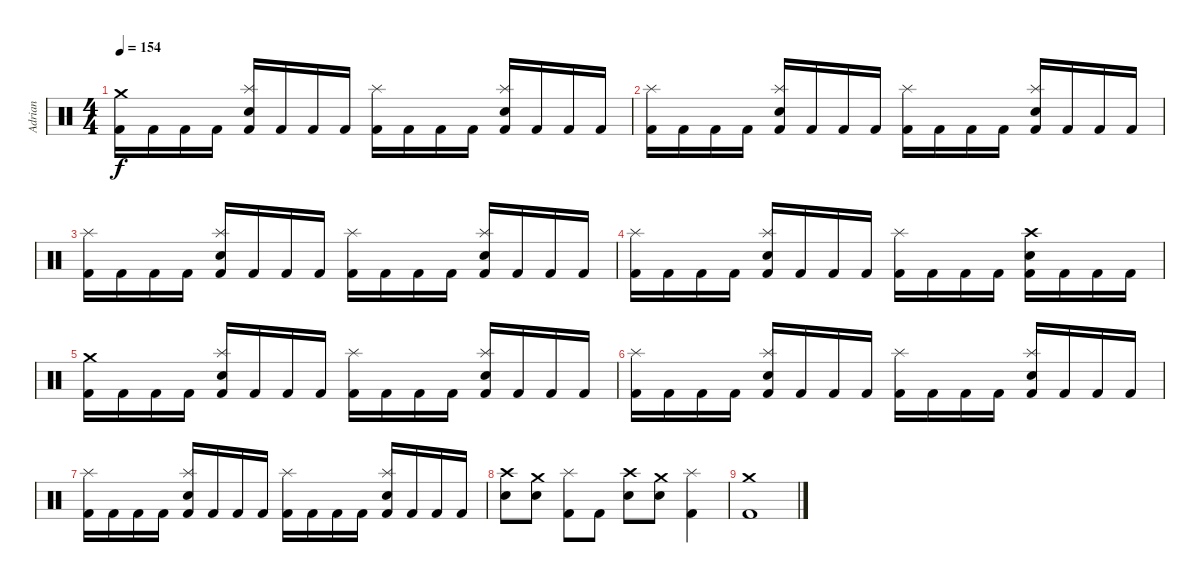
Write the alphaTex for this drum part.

\track ("Adrian" "Adrian") {instrument percussion}
\staff {score}
\articulation defaults
\ts (4 4)
\tempo 154
\clef neutral
\ks c
("Crash medium (hit)" "Kick (hit) 2").16{dy f} "Kick (hit) 2".16 "Kick (hit) 2".16 "Kick (hit) 2".16 ("Splash (hit)" "Electric Snare (hit)" "Kick (hit) 2").16 "Kick (hit) 2".16 "Kick (hit) 2".16 "Kick (hit) 2".16 ("Splash (hit)" "Kick (hit) 2").16 "Kick (hit) 2".16 "Kick (hit) 2".16 "Kick (hit) 2".16 ("Splash (hit)" "Electric Snare (hit)" "Kick (hit) 2").16 "Kick (hit) 2".16 "Kick (hit) 2".16 "Kick (hit) 2".16 |
("Splash (hit)" "Kick (hit) 2").16 "Kick (hit) 2".16 "Kick (hit) 2".16 "Kick (hit) 2".16 ("Splash (hit)" "Electric Snare (hit)" "Kick (hit) 2").16 "Kick (hit) 2".16 "Kick (hit) 2".16 "Kick (hit) 2".16 ("Splash (hit)" "Kick (hit) 2").16 "Kick (hit) 2".16 "Kick (hit) 2".16 "Kick (hit) 2".16 ("Splash (hit)" "Electric Snare (hit)" "Kick (hit) 2").16 "Kick (hit) 2".16 "Kick (hit) 2".16 "Kick (hit) 2".16 |
("Splash (hit)" "Kick (hit) 2").16 "Kick (hit) 2".16 "Kick (hit) 2".16 "Kick (hit) 2".16 ("Splash (hit)" "Electric Snare (hit)" "Kick (hit) 2").16 "Kick (hit) 2".16 "Kick (hit) 2".16 "Kick (hit) 2".16 ("Splash (hit)" "Kick (hit) 2").16 "Kick (hit) 2".16 "Kick (hit) 2".16 "Kick (hit) 2".16 ("Splash (hit)" "Electric Snare (hit)" "Kick (hit) 2").16 "Kick (hit) 2".16 "Kick (hit) 2".16 "Kick (hit) 2".16 |
("Splash (hit)" "Kick (hit) 2").16 "Kick (hit) 2".16 "Kick (hit) 2".16 "Kick (hit) 2".16 ("Splash (hit)" "Electric Snare (hit)" "Kick (hit) 2").16 "Kick (hit) 2".16 "Kick (hit) 2".16 "Kick (hit) 2".16 ("Splash (hit)" "Kick (hit) 2").16 "Kick (hit) 2".16 "Kick (hit) 2".16 "Kick (hit) 2".16 ("Crash high (hit)" "Electric Snare (hit)" "Kick (hit) 2").16 "Kick (hit) 2".16 "Kick (hit) 2".16 "Kick (hit) 2".16 |
("Crash medium (hit)" "Kick (hit) 2").16 "Kick (hit) 2".16 "Kick (hit) 2".16 "Kick (hit) 2".16 ("Splash (hit)" "Electric Snare (hit)" "Kick (hit) 2").16 "Kick (hit) 2".16 "Kick (hit) 2".16 "Kick (hit) 2".16 ("Splash (hit)" "Kick (hit) 2").16 "Kick (hit) 2".16 "Kick (hit) 2".16 "Kick (hit) 2".16 ("Splash (hit)" "Electric Snare (hit)" "Kick (hit) 2").16 "Kick (hit) 2".16 "Kick (hit) 2".16 "Kick (hit) 2".16 |
("Splash (hit)" "Kick (hit) 2").16 "Kick (hit) 2".16 "Kick (hit) 2".16 "Kick (hit) 2".16 ("Splash (hit)" "Electric Snare (hit)" "Kick (hit) 2").16 "Kick (hit) 2".16 "Kick (hit) 2".16 "Kick (hit) 2".16 ("Splash (hit)" "Kick (hit) 2").16 "Kick (hit) 2".16 "Kick (hit) 2".16 "Kick (hit) 2".16 ("Splash (hit)" "Electric Snare (hit)" "Kick (hit) 2").16 "Kick (hit) 2".16 "Kick (hit) 2".16 "Kick (hit) 2".16 |
("Splash (hit)" "Kick (hit) 2").16 "Kick (hit) 2".16 "Kick (hit) 2".16 "Kick (hit) 2".16 ("Splash (hit)" "Electric Snare (hit)" "Kick (hit) 2").16 "Kick (hit) 2".16 "Kick (hit) 2".16 "Kick (hit) 2".16 ("Splash (hit)" "Kick (hit) 2").16 "Kick (hit) 2".16 "Kick (hit) 2".16 "Kick (hit) 2".16 ("Splash (hit)" "Electric Snare (hit)" "Kick (hit) 2").16 "Kick (hit) 2".16 "Kick (hit) 2".16 "Kick (hit) 2".16 |
("Crash high (hit)" "Electric Snare (hit)").8 ("Crash medium (hit)" "Electric Snare (hit)").8 ("Splash (hit)" "Kick (hit) 2").8 "Kick (hit) 2".8 ("Crash high (hit)" "Electric Snare (hit)").8 ("Crash medium (hit)" "Electric Snare (hit)").8 ("Splash (hit)" "Kick (hit) 2").4 |
("Crash medium (hit)" "Kick (hit) 2").1
